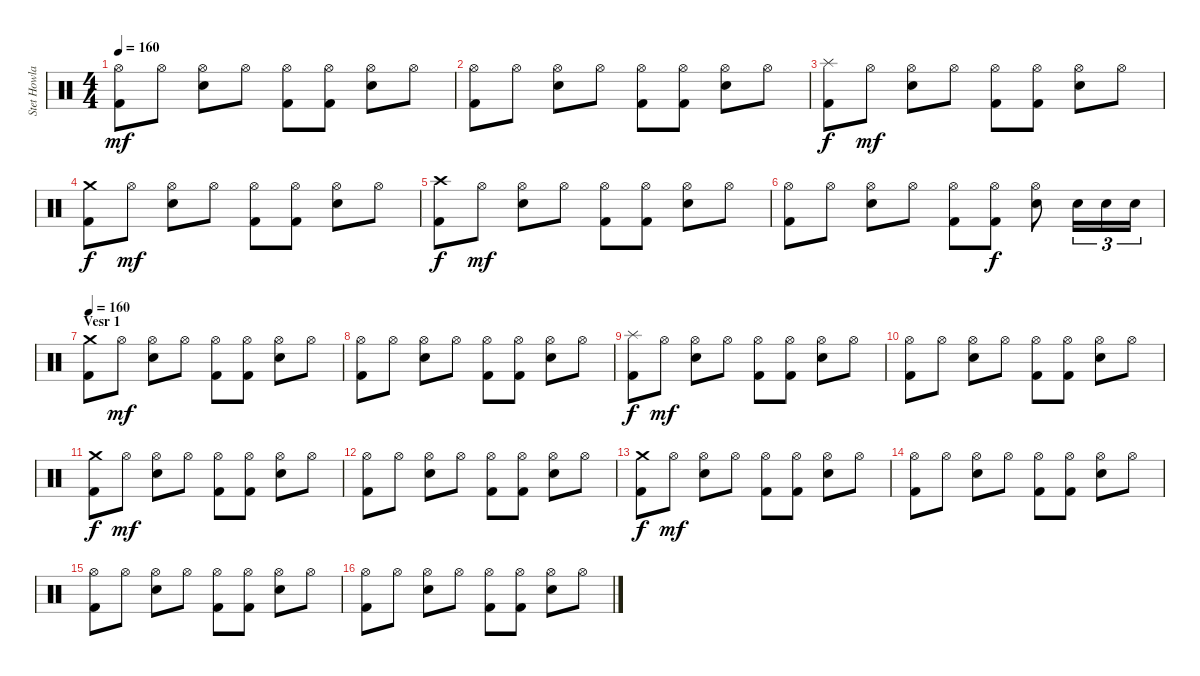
\track ("Stet Howland" "Stet Howla") {instrument percussion}
\staff {score}
\articulation defaults
\ts (4 4)
\tempo 160
\clef neutral
\ks c
("Hi-Hat (open)" "Kick (hit) 2").8{dy mf} "Hi-Hat (open)".8 ("Hi-Hat (open)" "Electric Snare (hit)").8 "Hi-Hat (open)".8 ("Hi-Hat (open)" "Kick (hit) 2").8 ("Hi-Hat (open)" "Kick (hit) 2").8 ("Hi-Hat (open)" "Electric Snare (hit)").8 "Hi-Hat (open)".8 |
("Hi-Hat (open)" "Kick (hit) 2").8 "Hi-Hat (open)".8 ("Hi-Hat (open)" "Electric Snare (hit)").8 "Hi-Hat (open)".8 ("Hi-Hat (open)" "Kick (hit) 2").8 ("Hi-Hat (open)" "Kick (hit) 2").8 ("Hi-Hat (open)" "Electric Snare (hit)").8 "Hi-Hat (open)".8 |
("Splash (hit)" "Kick (hit) 2").8{dy f} "Hi-Hat (open)".8{dy mf} ("Hi-Hat (open)" "Electric Snare (hit)").8 "Hi-Hat (open)".8 ("Hi-Hat (open)" "Kick (hit) 2").8 ("Hi-Hat (open)" "Kick (hit) 2").8 ("Hi-Hat (open)" "Electric Snare (hit)").8 "Hi-Hat (open)".8 |
("Crash medium (hit)" "Kick (hit) 2").8{dy f} "Hi-Hat (open)".8{dy mf} ("Hi-Hat (open)" "Electric Snare (hit)").8 "Hi-Hat (open)".8 ("Hi-Hat (open)" "Kick (hit) 2").8 ("Hi-Hat (open)" "Kick (hit) 2").8 ("Hi-Hat (open)" "Electric Snare (hit)").8 "Hi-Hat (open)".8 |
("Crash high (hit)" "Kick (hit) 2").8{dy f} "Hi-Hat (open)".8{dy mf} ("Hi-Hat (open)" "Electric Snare (hit)").8 "Hi-Hat (open)".8 ("Hi-Hat (open)" "Kick (hit) 2").8 ("Hi-Hat (open)" "Kick (hit) 2").8 ("Hi-Hat (open)" "Electric Snare (hit)").8 "Hi-Hat (open)".8 |
("Hi-Hat (open)" "Kick (hit) 2").8 "Hi-Hat (open)".8 ("Hi-Hat (open)" "Electric Snare (hit)").8 "Hi-Hat (open)".8 ("Hi-Hat (open)" "Kick (hit) 2").8 ("Hi-Hat (open)" "Kick (hit) 2").8{dy f} ("Hi-Hat (open)" "Electric Snare (hit)").8 "Electric Snare (hit)".16{tu (3 2)} "Electric Snare (hit)".16{tu (3 2)} "Electric Snare (hit)".16{tu (3 2)} |
\section ("" "Vesr 1")
\tempo 160
("Crash medium (hit)" "Kick (hit) 2").8 "Hi-Hat (open)".8{dy mf} ("Hi-Hat (open)" "Electric Snare (hit)").8 "Hi-Hat (open)".8 ("Hi-Hat (open)" "Kick (hit) 2").8 ("Hi-Hat (open)" "Kick (hit) 2").8 ("Hi-Hat (open)" "Electric Snare (hit)").8 "Hi-Hat (open)".8 |
("Hi-Hat (open)" "Kick (hit) 2").8 "Hi-Hat (open)".8 ("Hi-Hat (open)" "Electric Snare (hit)").8 "Hi-Hat (open)".8 ("Hi-Hat (open)" "Kick (hit) 2").8 ("Hi-Hat (open)" "Kick (hit) 2").8 ("Hi-Hat (open)" "Electric Snare (hit)").8 "Hi-Hat (open)".8 |
("Splash (hit)" "Kick (hit) 2").8{dy f} "Hi-Hat (open)".8{dy mf} ("Hi-Hat (open)" "Electric Snare (hit)").8 "Hi-Hat (open)".8 ("Hi-Hat (open)" "Kick (hit) 2").8 ("Hi-Hat (open)" "Kick (hit) 2").8 ("Hi-Hat (open)" "Electric Snare (hit)").8 "Hi-Hat (open)".8 |
("Hi-Hat (open)" "Kick (hit) 2").8 "Hi-Hat (open)".8 ("Hi-Hat (open)" "Electric Snare (hit)").8 "Hi-Hat (open)".8 ("Hi-Hat (open)" "Kick (hit) 2").8 ("Hi-Hat (open)" "Kick (hit) 2").8 ("Hi-Hat (open)" "Electric Snare (hit)").8 "Hi-Hat (open)".8 |
("Crash medium (hit)" "Kick (hit) 2").8{dy f} "Hi-Hat (open)".8{dy mf} ("Hi-Hat (open)" "Electric Snare (hit)").8 "Hi-Hat (open)".8 ("Hi-Hat (open)" "Kick (hit) 2").8 ("Hi-Hat (open)" "Kick (hit) 2").8 ("Hi-Hat (open)" "Electric Snare (hit)").8 "Hi-Hat (open)".8 |
("Hi-Hat (open)" "Kick (hit) 2").8 "Hi-Hat (open)".8 ("Hi-Hat (open)" "Electric Snare (hit)").8 "Hi-Hat (open)".8 ("Hi-Hat (open)" "Kick (hit) 2").8 ("Hi-Hat (open)" "Kick (hit) 2").8 ("Hi-Hat (open)" "Electric Snare (hit)").8 "Hi-Hat (open)".8 |
("Crash medium (hit)" "Kick (hit) 2").8{dy f} "Hi-Hat (open)".8{dy mf} ("Hi-Hat (open)" "Electric Snare (hit)").8 "Hi-Hat (open)".8 ("Hi-Hat (open)" "Kick (hit) 2").8 ("Hi-Hat (open)" "Kick (hit) 2").8 ("Hi-Hat (open)" "Electric Snare (hit)").8 "Hi-Hat (open)".8 |
("Hi-Hat (open)" "Kick (hit) 2").8 "Hi-Hat (open)".8 ("Hi-Hat (open)" "Electric Snare (hit)").8 "Hi-Hat (open)".8 ("Hi-Hat (open)" "Kick (hit) 2").8 ("Hi-Hat (open)" "Kick (hit) 2").8 ("Hi-Hat (open)" "Electric Snare (hit)").8 "Hi-Hat (open)".8 |
("Hi-Hat (open)" "Kick (hit) 2").8 "Hi-Hat (open)".8 ("Hi-Hat (open)" "Electric Snare (hit)").8 "Hi-Hat (open)".8 ("Hi-Hat (open)" "Kick (hit) 2").8 ("Hi-Hat (open)" "Kick (hit) 2").8 ("Hi-Hat (open)" "Electric Snare (hit)").8 "Hi-Hat (open)".8 |
("Hi-Hat (open)" "Kick (hit) 2").8 "Hi-Hat (open)".8 ("Hi-Hat (open)" "Electric Snare (hit)").8 "Hi-Hat (open)".8 ("Hi-Hat (open)" "Kick (hit) 2").8 ("Hi-Hat (open)" "Kick (hit) 2").8 ("Hi-Hat (open)" "Electric Snare (hit)").8 "Hi-Hat (open)".8
